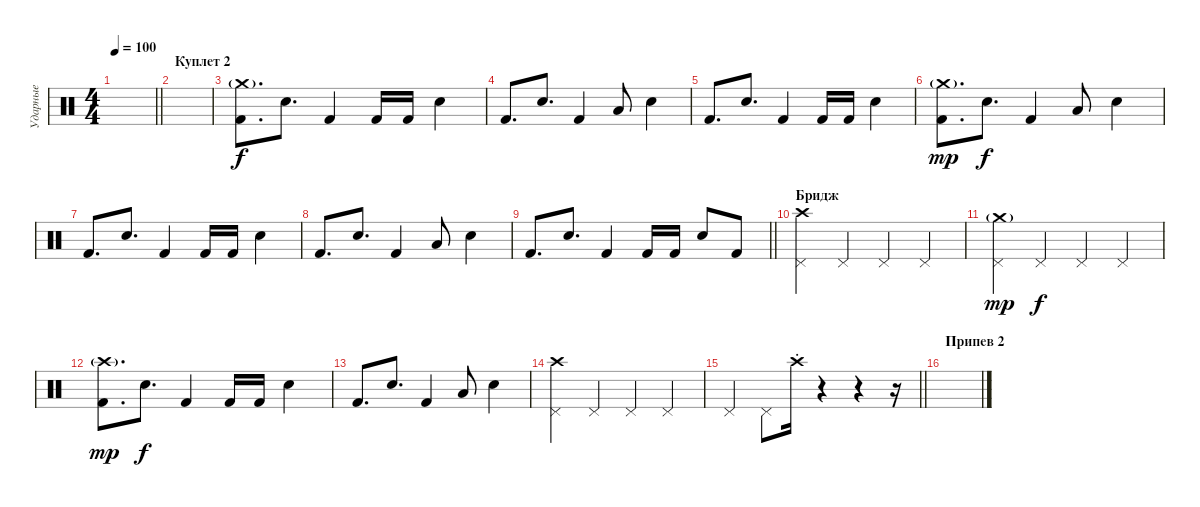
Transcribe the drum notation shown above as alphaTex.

\track ("Ударные" "Ударные") {instrument percussion}
\staff {score}
\articulation defaults
\ts (4 4)
\tempo 100
\clef neutral
\barLineRight lightlight
\ks c
|
\section ("" "Куплет 2")
|
("Kick (hit) 2" "Crash medium (hit)"{g}).8{d} "Electric Snare (hit)".8{d dy f} "Kick (hit) 2".4 "Kick (hit) 2".16 "Kick (hit) 2".16 "Electric Snare (hit)".4 |
"Kick (hit) 2".8{d} "Electric Snare (hit)".8{d} "Kick (hit) 2".4 "Low Floor Tom (hit)".8 "Electric Snare (hit)".4 |
"Kick (hit) 2".8{d} "Electric Snare (hit)".8{d} "Kick (hit) 2".4 "Kick (hit) 2".16 "Kick (hit) 2".16 "Electric Snare (hit)".4 |
("Kick (hit) 2" "Crash medium (hit)"{g}).8{d dy mp} "Electric Snare (hit)".8{d dy f} "Kick (hit) 2".4 "Low Floor Tom (hit)".8 "Electric Snare (hit)".4 |
"Kick (hit) 2".8{d} "Electric Snare (hit)".8{d} "Kick (hit) 2".4 "Kick (hit) 2".16 "Kick (hit) 2".16 "Electric Snare (hit)".4 |
"Kick (hit) 2".8{d} "Electric Snare (hit)".8{d} "Kick (hit) 2".4 "Low Floor Tom (hit)".8 "Electric Snare (hit)".4 |
\barLineRight lightlight "Kick (hit) 2".8{d} "Electric Snare (hit)".8{d} "Kick (hit) 2".4 "Kick (hit) 2".16 "Kick (hit) 2".16 "Electric Snare (hit)".8 "Kick (hit) 2".8
|
\section ("" "Бридж")
("Crash high (hit)" "Pedal Hi-Hat (hit)").4 "Pedal Hi-Hat (hit)".4 "Pedal Hi-Hat (hit)".4 "Pedal Hi-Hat (hit)".4 |
("Crash medium (hit)"{g} "Pedal Hi-Hat (hit)").4{dy mp} "Pedal Hi-Hat (hit)".4{dy f} "Pedal Hi-Hat (hit)".4 "Pedal Hi-Hat (hit)".4 |
("Kick (hit) 2" "Crash high (hit)"{g}).8{d dy mp} "Electric Snare (hit)".8{d dy f} "Kick (hit) 2".4 "Kick (hit) 2".16 "Kick (hit) 2".16 "Electric Snare (hit)".4 |
"Kick (hit) 2".8{d} "Electric Snare (hit)".8{d} "Kick (hit) 2".4 "Low Floor Tom (hit)".8 "Electric Snare (hit)".4 |
("Crash high (hit)" "Pedal Hi-Hat (hit)").4 "Pedal Hi-Hat (hit)".4 "Pedal Hi-Hat (hit)".4 "Pedal Hi-Hat (hit)".4 |
\barLineRight lightlight "Pedal Hi-Hat (hit)".4 "Pedal Hi-Hat (hit)".8 "Crash high (hit)"{st}.16
r.4 r.4 r.16 |
\section ("" "Припев 2")
